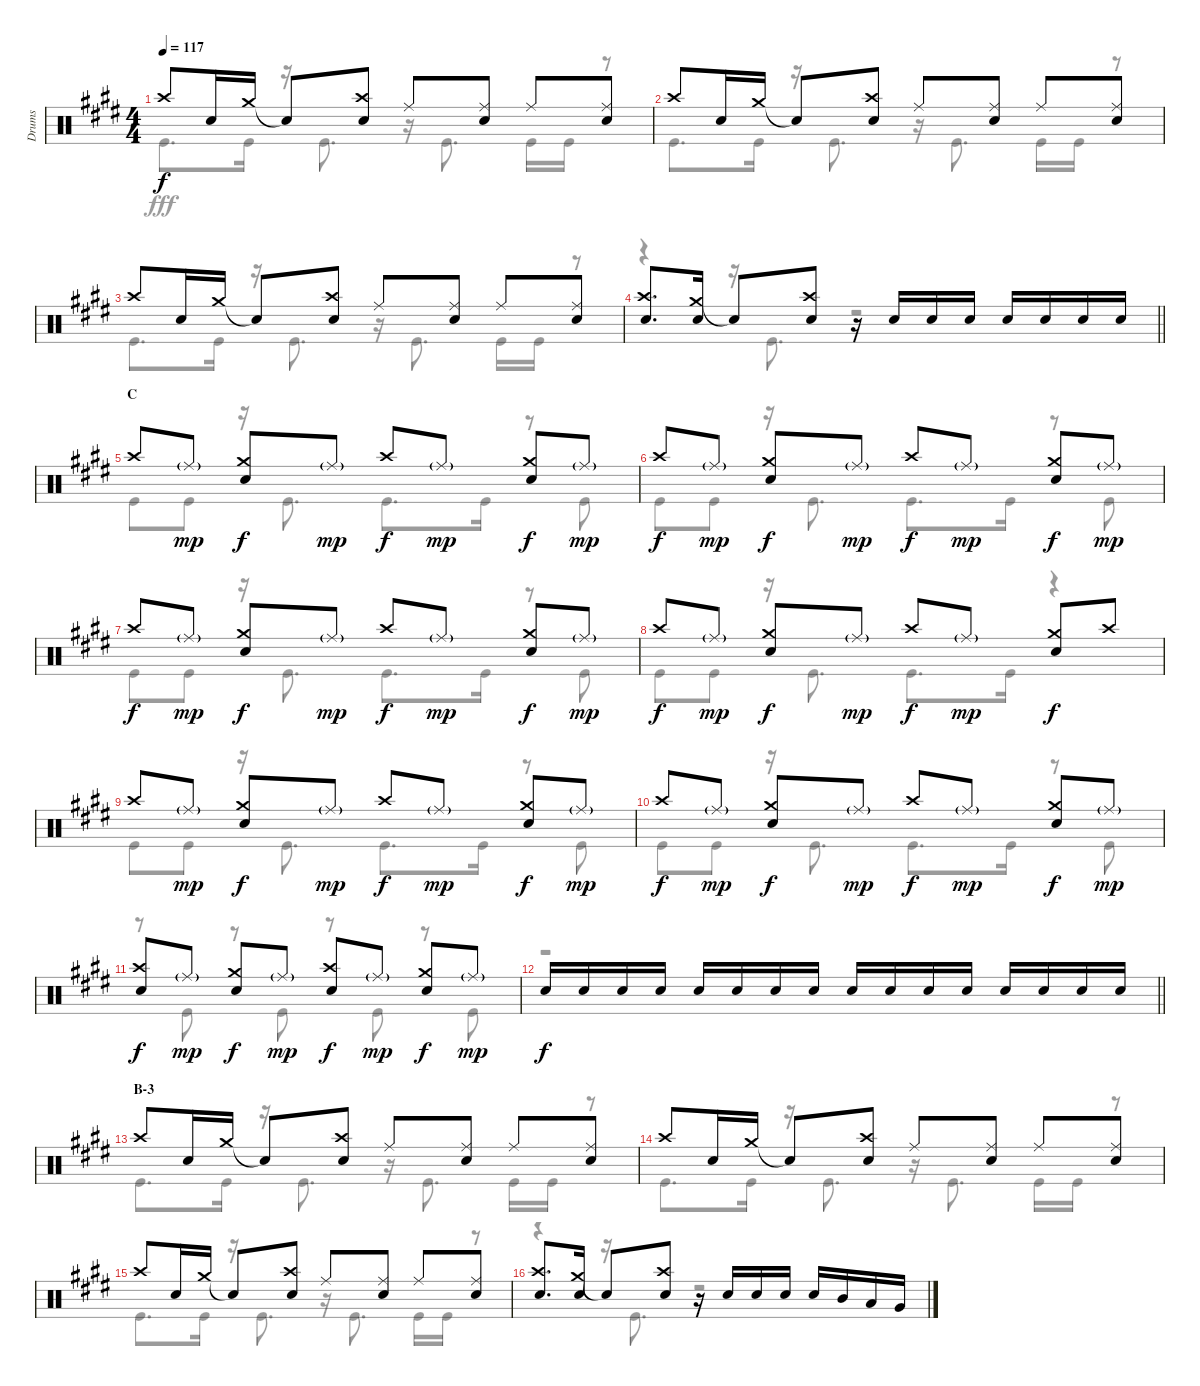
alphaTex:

\track ("Drums" "Drums") {instrument percussion}
\staff {score}
\articulation defaults
\voice
\ts (4 4)
\tempo 117
\clef neutral
\ks e "Crash high (hit)".8{dy f} "Snare (hit) 2".16 "Crash medium (hit)".16 "Snare (hit)"{t}.8
("Crash high (hit)" "Snare (hit) 2").8 "Ride (middle)".8 ("Ride (middle)" "Snare (hit) 2").8 "Ride (middle)".8 ("Ride (middle)" "Snare (hit) 2").8 |
"Crash high (hit)".8 "Snare (hit) 2".16 "Crash medium (hit)".16 "Snare (hit)"{t}.8 ("Crash high (hit)" "Snare (hit) 2").8 "Ride (middle)".8 ("Ride (middle)" "Snare (hit) 2").8 "Ride (middle)".8 ("Ride (middle)" "Snare (hit) 2").8 |
"Crash high (hit)".8 "Snare (hit) 2".16 "Crash medium (hit)".16 "Snare (hit)"{t}.8 ("Crash high (hit)" "Snare (hit) 2").8 "Ride (middle)".8 ("Ride (middle)" "Snare (hit) 2").8 "Ride (middle)".8 ("Ride (middle)" "Snare (hit) 2").8 |
\barLineRight lightlight
("Crash high (hit)" "Snare (hit) 2").8{d} ("Crash medium (hit)" "Snare (hit) 2").16 "Snare (hit)"{t}.8 ("Crash high (hit)" "Snare (hit) 2").8 r.16 "Snare (hit) 2".16 "Snare (hit) 2".16 "Snare (hit) 2".16 "Snare (hit) 2".16 "Snare (hit) 2".16 "Snare (hit) 2".16 "Snare (hit) 2".16 |
\section ("" "C")
"Crash high (hit)".8 "Ride (middle)"{g}.8{dy mp} ("Crash medium (hit)" "Snare (hit) 2").8{dy f} "Ride (middle)"{g}.8{dy mp} "Crash high (hit)".8{dy f} "Ride (middle)"{g}.8{dy mp} ("Crash medium (hit)" "Snare (hit) 2").8{dy f} "Ride (middle)"{g}.8{dy mp} |
"Crash high (hit)".8{dy f} "Ride (middle)"{g}.8{dy mp} ("Crash medium (hit)" "Snare (hit) 2").8{dy f} "Ride (middle)"{g}.8{dy mp} "Crash high (hit)".8{dy f} "Ride (middle)"{g}.8{dy mp} ("Crash medium (hit)" "Snare (hit) 2").8{dy f} "Ride (middle)"{g}.8{dy mp} |
"Crash high (hit)".8{dy f} "Ride (middle)"{g}.8{dy mp} ("Crash medium (hit)" "Snare (hit) 2").8{dy f} "Ride (middle)"{g}.8{dy mp} "Crash high (hit)".8{dy f} "Ride (middle)"{g}.8{dy mp} ("Crash medium (hit)" "Snare (hit) 2").8{dy f} "Ride (middle)"{g}.8{dy mp} |
"Crash high (hit)".8{dy f} "Ride (middle)"{g}.8{dy mp} ("Crash medium (hit)" "Snare (hit) 2").8{dy f} "Ride (middle)"{g}.8{dy mp} "Crash high (hit)".8{dy f} "Ride (middle)"{g}.8{dy mp} ("Crash medium (hit)" "Snare (hit) 2").8{dy f} "Crash high (hit)".8 |
"Crash high (hit)".8 "Ride (middle)"{g}.8{dy mp} ("Crash medium (hit)" "Snare (hit) 2").8{dy f} "Ride (middle)"{g}.8{dy mp} "Crash high (hit)".8{dy f} "Ride (middle)"{g}.8{dy mp} ("Crash medium (hit)" "Snare (hit) 2").8{dy f} "Ride (middle)"{g}.8{dy mp} |
"Crash high (hit)".8{dy f} "Ride (middle)"{g}.8{dy mp} ("Crash medium (hit)" "Snare (hit) 2").8{dy f} "Ride (middle)"{g}.8{dy mp} "Crash high (hit)".8{dy f} "Ride (middle)"{g}.8{dy mp} ("Crash medium (hit)" "Snare (hit) 2").8{dy f} "Ride (middle)"{g}.8{dy mp} |
("Crash high (hit)" "Snare (hit) 2").8{dy f} "Ride (middle)"{g}.8{dy mp} ("Crash medium (hit)" "Snare (hit) 2").8{dy f} "Ride (middle)"{g}.8{dy mp} ("Crash high (hit)" "Snare (hit) 2").8{dy f} "Ride (middle)"{g}.8{dy mp} ("Crash medium (hit)" "Snare (hit) 2").8{dy f} "Ride (middle)"{g}.8{dy mp} |
\barLineRight lightlight "Snare (hit) 2".16{dy f} "Snare (hit) 2".16 "Snare (hit) 2".16 "Snare (hit) 2".16 "Snare (hit) 2".16 "Snare (hit) 2".16 "Snare (hit) 2".16 "Snare (hit) 2".16 "Snare (hit) 2".16 "Snare (hit) 2".16 "Snare (hit) 2".16 "Snare (hit) 2".16 "Snare (hit) 2".16 "Snare (hit) 2".16 "Snare (hit) 2".16 "Snare (hit) 2".16
|
\section ("" "B-3")
"Crash high (hit)".8 "Snare (hit) 2".16 "Crash medium (hit)".16 "Snare (hit)"{t}.8 ("Crash high (hit)" "Snare (hit) 2").8 "Ride (middle)".8 ("Ride (middle)" "Snare (hit) 2").8 "Ride (middle)".8 ("Ride (middle)" "Snare (hit) 2").8 |
"Crash high (hit)".8 "Snare (hit) 2".16 "Crash medium (hit)".16 "Snare (hit)"{t}.8 ("Crash high (hit)" "Snare (hit) 2").8 "Ride (middle)".8 ("Ride (middle)" "Snare (hit) 2").8 "Ride (middle)".8 ("Ride (middle)" "Snare (hit) 2").8 |
"Crash high (hit)".8 "Snare (hit) 2".16 "Crash medium (hit)".16 "Snare (hit)"{t}.8 ("Crash high (hit)" "Snare (hit) 2").8 "Ride (middle)".8 ("Ride (middle)" "Snare (hit) 2").8 "Ride (middle)".8 ("Ride (middle)" "Snare (hit) 2").8 |
("Crash high (hit)" "Snare (hit) 2").8{d} ("Crash medium (hit)" "Snare (hit) 2").16 "Snare (hit)"{t}.8 ("Crash high (hit)" "Snare (hit) 2").8 r.16 "Snare (hit) 2".16 "Snare (hit) 2".16 "Snare (hit) 2".16 "Snare (hit) 2".16 "Mid Tom (hit)".16 "Low Tom (hit)".16 "Very Low Tom (hit)".16
\voice
\clef neutral
\ottava regular
\simile none
\ks e "Kick (hit)".8{d dy fff} "Kick (hit)".16
r.16 "Kick (hit)".8{d} r.16 "Kick (hit)".8{d} "Kick (hit)".16 "Kick (hit)".16 r.8 |
"Kick (hit)".8{d} "Kick (hit)".16 r.16 "Kick (hit)".8{d} r.16 "Kick (hit)".8{d} "Kick (hit)".16 "Kick (hit)".16 r.8 |
"Kick (hit)".8{d} "Kick (hit)".16 r.16 "Kick (hit)".8{d} r.16 "Kick (hit)".8{d} "Kick (hit)".16 "Kick (hit)".16 r.8 |
\barLineRight lightlight
r.4 r.16 "Kick (hit)".8{d} r.2 |
"Kick (hit)".8 "Kick (hit)".8 r.16 "Kick (hit)".8{d} "Kick (hit)".8{d} "Kick (hit)".16 r.8 "Kick (hit)".8 |
"Kick (hit)".8 "Kick (hit)".8 r.16 "Kick (hit)".8{d} "Kick (hit)".8{d} "Kick (hit)".16 r.8 "Kick (hit)".8 |
"Kick (hit)".8 "Kick (hit)".8 r.16 "Kick (hit)".8{d} "Kick (hit)".8{d} "Kick (hit)".16 r.8 "Kick (hit)".8 |
"Kick (hit)".8 "Kick (hit)".8 r.16 "Kick (hit)".8{d} "Kick (hit)".8{d} "Kick (hit)".16 r.4 |
"Kick (hit)".8 "Kick (hit)".8 r.16 "Kick (hit)".8{d} "Kick (hit)".8{d} "Kick (hit)".16 r.8 "Kick (hit)".8 |
"Kick (hit)".8 "Kick (hit)".8 r.16 "Kick (hit)".8{d} "Kick (hit)".8{d} "Kick (hit)".16 r.8 "Kick (hit)".8 |
r.8 "Kick (hit)".8 r.8 "Kick (hit)".8 r.8 "Kick (hit)".8 r.8 "Kick (hit)".8 |
\barLineRight lightlight
r.1 |
"Kick (hit)".8{d} "Kick (hit)".16 r.16 "Kick (hit)".8{d} r.16 "Kick (hit)".8{d} "Kick (hit)".16 "Kick (hit)".16 r.8 |
"Kick (hit)".8{d} "Kick (hit)".16 r.16 "Kick (hit)".8{d} r.16 "Kick (hit)".8{d} "Kick (hit)".16 "Kick (hit)".16 r.8 |
"Kick (hit)".8{d} "Kick (hit)".16 r.16 "Kick (hit)".8{d} r.16 "Kick (hit)".8{d} "Kick (hit)".16 "Kick (hit)".16 r.8 |
r.4 r.16 "Kick (hit)".8{d} r.2
